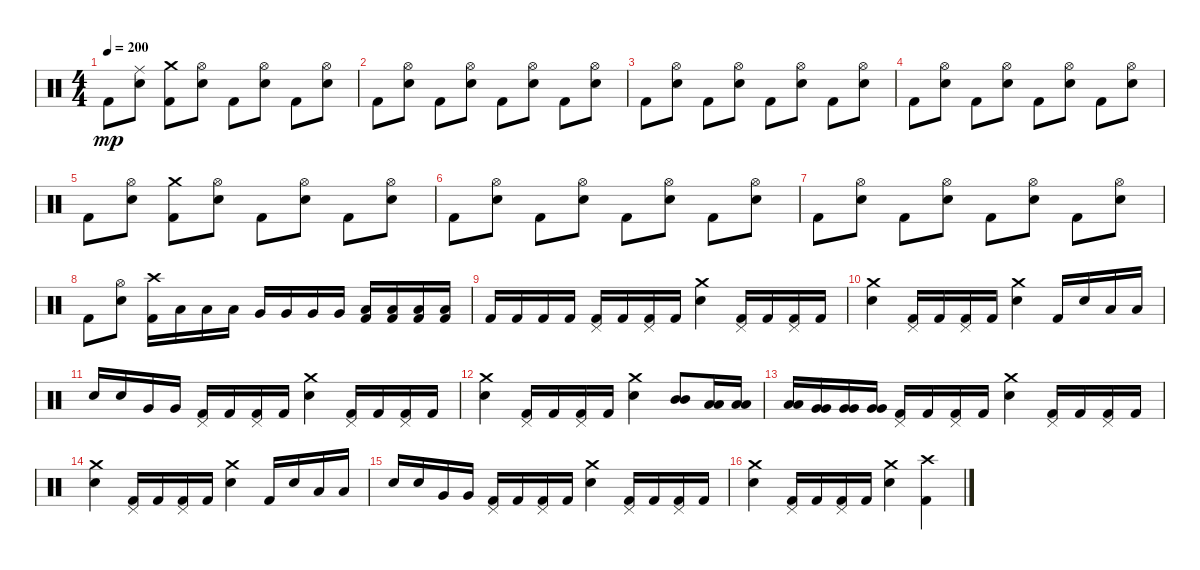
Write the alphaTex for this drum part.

\track "" {instrument percussion}
\staff {score}
\articulation defaults
\ts (4 4)
\tempo 200
\clef neutral
\ks c "Kick (hit) 2".8{dy mp}
("Electric Snare (hit)" "Ride (middle)").8 ("Kick (hit) 2" "Crash medium (hit)").8 ("Electric Snare (hit)" "Hi-Hat (open)").8 "Kick (hit) 2".8 ("Electric Snare (hit)" "Hi-Hat (open)").8 "Kick (hit) 2".8 ("Electric Snare (hit)" "Hi-Hat (open)").8 |
"Kick (hit) 2".8 ("Electric Snare (hit)" "Hi-Hat (open)").8 "Kick (hit) 2".8 ("Electric Snare (hit)" "Hi-Hat (open)").8 "Kick (hit) 2".8 ("Electric Snare (hit)" "Hi-Hat (open)").8 "Kick (hit) 2".8 ("Electric Snare (hit)" "Hi-Hat (open)").8 |
"Kick (hit) 2".8 ("Electric Snare (hit)" "Hi-Hat (open)").8 "Kick (hit) 2".8 ("Electric Snare (hit)" "Hi-Hat (open)").8 "Kick (hit) 2".8 ("Electric Snare (hit)" "Hi-Hat (open)").8 "Kick (hit) 2".8 ("Electric Snare (hit)" "Hi-Hat (open)").8 |
"Kick (hit) 2".8 ("Electric Snare (hit)" "Hi-Hat (open)").8 "Kick (hit) 2".8 ("Electric Snare (hit)" "Hi-Hat (open)").8 "Kick (hit) 2".8 ("Electric Snare (hit)" "Hi-Hat (open)").8 "Kick (hit) 2".8 ("Electric Snare (hit)" "Hi-Hat (open)").8 |
"Kick (hit) 2".8 ("Electric Snare (hit)" "Hi-Hat (open)").8 ("Kick (hit) 2" "Crash medium (hit)").8 ("Electric Snare (hit)" "Hi-Hat (open)").8 "Kick (hit) 2".8 ("Electric Snare (hit)" "Hi-Hat (open)").8 "Kick (hit) 2".8 ("Electric Snare (hit)" "Hi-Hat (open)").8 |
"Kick (hit) 2".8 ("Electric Snare (hit)" "Hi-Hat (open)").8 "Kick (hit) 2".8 ("Electric Snare (hit)" "Hi-Hat (open)").8 "Kick (hit) 2".8 ("Electric Snare (hit)" "Hi-Hat (open)").8 "Kick (hit) 2".8 ("Electric Snare (hit)" "Hi-Hat (open)").8 |
"Kick (hit) 2".8 ("Electric Snare (hit)" "Hi-Hat (open)").8 "Kick (hit) 2".8 ("Electric Snare (hit)" "Hi-Hat (open)").8 "Kick (hit) 2".8 ("Electric Snare (hit)" "Hi-Hat (open)").8 "Kick (hit) 2".8 ("Electric Snare (hit)" "Hi-Hat (open)").8 |
"Kick (hit) 2".8 ("Electric Snare (hit)" "Hi-Hat (open)").8 ("Kick (hit) 2" "Crash high (hit)").16 "Low Tom (hit)".16 "Low Tom (hit)".16 "Low Tom (hit)".16 "Very Low Tom (hit)".16 "Very Low Tom (hit)".16 "Very Low Tom (hit)".16 "Very Low Tom (hit)".16 ("Kick (hit) 2" "Low Floor Tom (hit)").16 ("Kick (hit) 2" "Low Floor Tom (hit)").16 ("Kick (hit) 2" "Low Floor Tom (hit)").16 ("Kick (hit) 2" "Low Floor Tom (hit)").16 |
"Kick (hit) 2".16 "Kick (hit) 2".16 "Kick (hit) 2".16 "Kick (hit) 2".16 ("Kick (hit) 2" "Pedal Hi-Hat (hit)").16 "Kick (hit) 2".16 ("Kick (hit) 2" "Pedal Hi-Hat (hit)").16 "Kick (hit) 2".16 ("Electric Snare (hit)" "Crash medium (hit)").4 ("Kick (hit) 2" "Pedal Hi-Hat (hit)").16 "Kick (hit) 2".16 ("Kick (hit) 2" "Pedal Hi-Hat (hit)").16 "Kick (hit) 2".16 |
("Electric Snare (hit)" "Crash medium (hit)").4 ("Kick (hit) 2" "Pedal Hi-Hat (hit)").16 "Kick (hit) 2".16 ("Kick (hit) 2" "Pedal Hi-Hat (hit)").16 "Kick (hit) 2".16 ("Electric Snare (hit)" "Crash medium (hit)").4 "Kick (hit) 2".16 "Electric Snare (hit)".16 "Low Tom (hit)".16 "Low Tom (hit)".16 |
"Electric Snare (hit)".16 "Electric Snare (hit)".16 "Very Low Tom (hit)".16 "Very Low Tom (hit)".16 ("Kick (hit) 2" "Pedal Hi-Hat (hit)").16 "Kick (hit) 2".16 ("Kick (hit) 2" "Pedal Hi-Hat (hit)").16 "Kick (hit) 2".16 ("Electric Snare (hit)" "Crash medium (hit)").4 ("Kick (hit) 2" "Pedal Hi-Hat (hit)").16 "Kick (hit) 2".16 ("Kick (hit) 2" "Pedal Hi-Hat (hit)").16 "Kick (hit) 2".16 |
("Electric Snare (hit)" "Crash medium (hit)").4 ("Kick (hit) 2" "Pedal Hi-Hat (hit)").16 "Kick (hit) 2".16 ("Kick (hit) 2" "Pedal Hi-Hat (hit)").16 "Kick (hit) 2".16 ("Electric Snare (hit)" "Crash medium (hit)").4 ("Mid Tom (hit)" "Mid Tom (hit)").8 ("Low Tom (hit)" "Low Tom (hit)").16 ("Low Tom (hit)" "Low Tom (hit)").16 |
("Low Tom (hit)" "Low Tom (hit)").16 ("Very Low Tom (hit)" "Very Low Tom (hit)").16 ("Very Low Tom (hit)" "Very Low Tom (hit)").16 ("Very Low Tom (hit)" "Very Low Tom (hit)").16 ("Kick (hit) 2" "Pedal Hi-Hat (hit)").16 "Kick (hit) 2".16 ("Kick (hit) 2" "Pedal Hi-Hat (hit)").16 "Kick (hit) 2".16 ("Electric Snare (hit)" "Crash medium (hit)").4 ("Kick (hit) 2" "Pedal Hi-Hat (hit)").16 "Kick (hit) 2".16 ("Kick (hit) 2" "Pedal Hi-Hat (hit)").16 "Kick (hit) 2".16 |
("Electric Snare (hit)" "Crash medium (hit)").4 ("Kick (hit) 2" "Pedal Hi-Hat (hit)").16 "Kick (hit) 2".16 ("Kick (hit) 2" "Pedal Hi-Hat (hit)").16 "Kick (hit) 2".16 ("Electric Snare (hit)" "Crash medium (hit)").4 "Kick (hit) 2".16 "Electric Snare (hit)".16 "Low Tom (hit)".16 "Low Tom (hit)".16 |
"Electric Snare (hit)".16 "Electric Snare (hit)".16 "Very Low Tom (hit)".16 "Very Low Tom (hit)".16 ("Kick (hit) 2" "Pedal Hi-Hat (hit)").16 "Kick (hit) 2".16 ("Kick (hit) 2" "Pedal Hi-Hat (hit)").16 "Kick (hit) 2".16 ("Electric Snare (hit)" "Crash medium (hit)").4 ("Kick (hit) 2" "Pedal Hi-Hat (hit)").16 "Kick (hit) 2".16 ("Kick (hit) 2" "Pedal Hi-Hat (hit)").16 "Kick (hit) 2".16 |
("Electric Snare (hit)" "Crash medium (hit)").4 ("Kick (hit) 2" "Pedal Hi-Hat (hit)").16 "Kick (hit) 2".16 ("Kick (hit) 2" "Pedal Hi-Hat (hit)").16 "Kick (hit) 2".16 ("Electric Snare (hit)" "Crash medium (hit)").4 ("Kick (hit) 2" "Crash high (hit)").4
